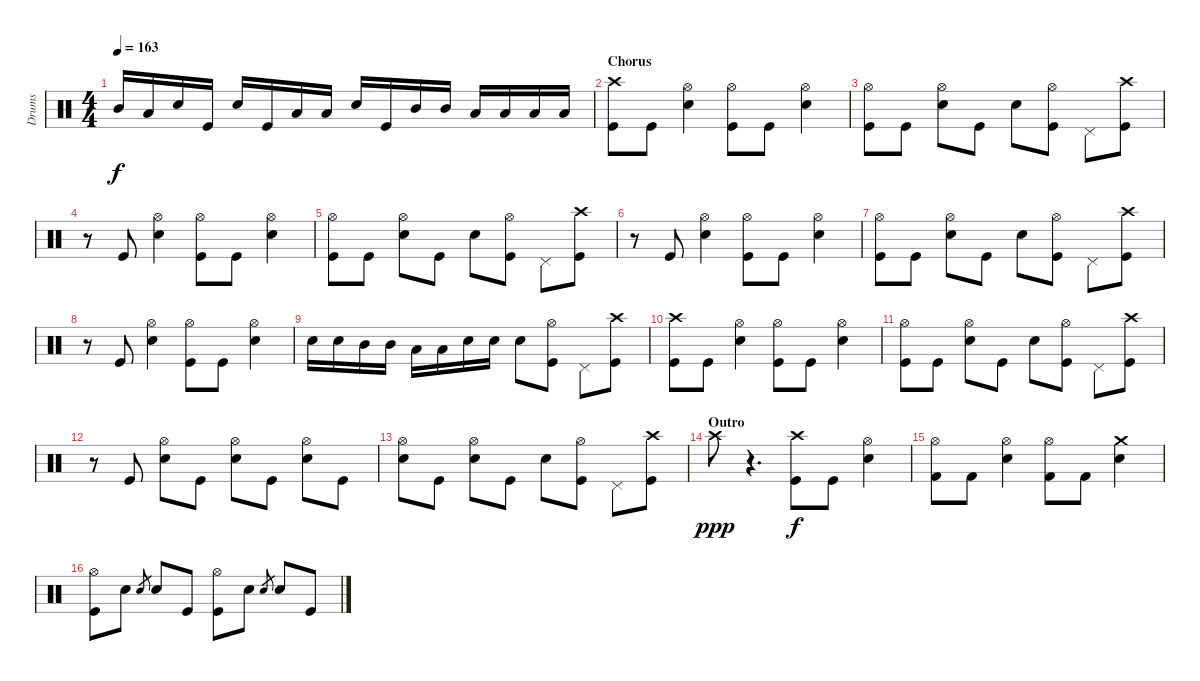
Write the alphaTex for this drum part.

\track ("Drums" "Drums") {instrument percussion}
\staff {score}
\articulation defaults
\ts (4 4)
\tempo 163
\clef neutral
\ks c "Mid Tom (hit)".16{dy f} "Low Tom (hit)".16 "Electric Snare (hit)".16 "Kick (hit)".16 "Electric Snare (hit)".16 "Kick (hit)".16 "Low Tom (hit)".16 "Low Tom (hit)".16 "Electric Snare (hit)".16 "Kick (hit)".16 "Mid Tom (hit)".16 "Mid Tom (hit)".16 "Low Tom (hit)".16 "Low Tom (hit)".16 "Low Tom (hit)".16 "Low Tom (hit)".16
|
\section ("" "Chorus")
("Crash high (hit)" "Kick (hit)").8 "Kick (hit)".8 ("Hi-Hat (open)" "Electric Snare (hit)").4 ("Hi-Hat (open)" "Kick (hit)").8 "Kick (hit)".8 ("Hi-Hat (open)" "Electric Snare (hit)").4 |
("Hi-Hat (open)" "Kick (hit)").8 "Kick (hit)".8 ("Hi-Hat (open)" "Electric Snare (hit)").8 "Kick (hit)".8 "Electric Snare (hit)".8 ("Hi-Hat (open)" "Kick (hit)").8 "Pedal Hi-Hat (hit)".8 ("Crash high (hit)" "Kick (hit)").8 |
r.8 "Kick (hit)".8 ("Hi-Hat (open)" "Electric Snare (hit)").4 ("Hi-Hat (open)" "Kick (hit)").8 "Kick (hit)".8 ("Hi-Hat (open)" "Electric Snare (hit)").4 |
("Hi-Hat (open)" "Kick (hit)").8 "Kick (hit)".8 ("Hi-Hat (open)" "Electric Snare (hit)").8 "Kick (hit)".8 "Electric Snare (hit)".8 ("Hi-Hat (open)" "Kick (hit)").8 "Pedal Hi-Hat (hit)".8 ("Crash high (hit)" "Kick (hit)").8 |
r.8 "Kick (hit)".8 ("Hi-Hat (open)" "Electric Snare (hit)").4 ("Hi-Hat (open)" "Kick (hit)").8 "Kick (hit)".8 ("Hi-Hat (open)" "Electric Snare (hit)").4 |
("Hi-Hat (open)" "Kick (hit)").8 "Kick (hit)".8 ("Hi-Hat (open)" "Electric Snare (hit)").8 "Kick (hit)".8 "Electric Snare (hit)".8 ("Hi-Hat (open)" "Kick (hit)").8 "Pedal Hi-Hat (hit)".8 ("Crash high (hit)" "Kick (hit)").8 |
r.8 "Kick (hit)".8 ("Hi-Hat (open)" "Electric Snare (hit)").4 ("Hi-Hat (open)" "Kick (hit)").8 "Kick (hit)".8 ("Hi-Hat (open)" "Electric Snare (hit)").4 |
"Electric Snare (hit)".16 "Electric Snare (hit)".16 "Mid Tom (hit)".16 "Mid Tom (hit)".16 "Low Tom (hit)".16 "Low Tom (hit)".16 "Electric Snare (hit)".16 "Electric Snare (hit)".16 "Electric Snare (hit)".8 ("Hi-Hat (open)" "Kick (hit)").8 "Pedal Hi-Hat (hit)".8 ("Crash high (hit)" "Kick (hit)").8 |
("Crash high (hit)" "Kick (hit)").8 "Kick (hit)".8 ("Hi-Hat (open)" "Electric Snare (hit)").4 ("Hi-Hat (open)" "Kick (hit)").8 "Kick (hit)".8 ("Hi-Hat (open)" "Electric Snare (hit)").4 |
("Hi-Hat (open)" "Kick (hit)").8 "Kick (hit)".8 ("Hi-Hat (open)" "Electric Snare (hit)").8 "Kick (hit)".8 "Electric Snare (hit)".8 ("Hi-Hat (open)" "Kick (hit)").8 "Pedal Hi-Hat (hit)".8 ("Crash high (hit)" "Kick (hit)").8 |
r.8 "Kick (hit)".8 ("Hi-Hat (open)" "Electric Snare (hit)").8 "Kick (hit)".8 ("Hi-Hat (open)" "Electric Snare (hit)").8 "Kick (hit)".8 ("Hi-Hat (open)" "Electric Snare (hit)").8 "Kick (hit)".8 |
("Hi-Hat (open)" "Electric Snare (hit)").8 "Kick (hit)".8 ("Hi-Hat (open)" "Electric Snare (hit)").8 "Kick (hit)".8 "Electric Snare (hit)".8 ("Hi-Hat (open)" "Kick (hit)").8 "Pedal Hi-Hat (hit)".8 ("Crash high (hit)" "Kick (hit)").8 |
\section ("" "Outro")
"Crash high (hit)".8{dy ppp} r.4{d} ("Crash high (hit)" "Kick (hit)").8{dy f} "Kick (hit)".8 ("Hi-Hat (open)" "Electric Snare (hit)").4 |
("Hi-Hat (open)" "Kick (hit) 2").8 "Kick (hit) 2".8 ("Hi-Hat (open)" "Electric Snare (hit)").4 ("Hi-Hat (open)" "Kick (hit) 2").8 "Kick (hit) 2".8 ("Crash medium (hit)" "Electric Snare (hit)").4 |
("Hi-Hat (open)" "Kick (hit)").8 "Electric Snare (hit)".8 "Electric Snare (hit)".8{gr} "Electric Snare (hit)".8 "Kick (hit)".8 ("Hi-Hat (open)" "Kick (hit)").8 "Electric Snare (hit)".8 "Electric Snare (hit)".8{gr} "Electric Snare (hit)".8 "Kick (hit)".8
